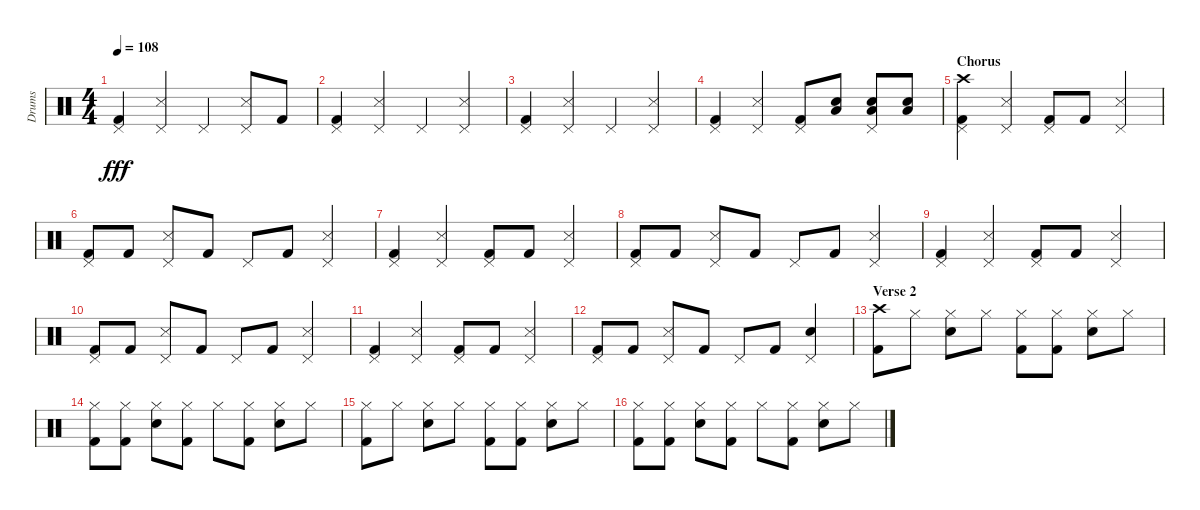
\track ("Drums" "Drums") {instrument percussion}
\staff {score}
\articulation defaults
\ts (4 4)
\tempo 108
\clef neutral
\ks c
("Pedal Hi-Hat (hit)" "Kick (hit) 2").4{dy fff} ("Pedal Hi-Hat (hit)" "Snare (side stick) 3").4 "Pedal Hi-Hat (hit)".4 ("Pedal Hi-Hat (hit)" "Snare (side stick) 3").8 "Kick (hit) 2".8 |
("Pedal Hi-Hat (hit)" "Kick (hit) 2").4 ("Pedal Hi-Hat (hit)" "Snare (side stick) 3").4 "Pedal Hi-Hat (hit)".4 ("Pedal Hi-Hat (hit)" "Snare (side stick) 3").4 |
("Pedal Hi-Hat (hit)" "Kick (hit) 2").4 ("Pedal Hi-Hat (hit)" "Snare (side stick) 3").4 "Pedal Hi-Hat (hit)".4 ("Pedal Hi-Hat (hit)" "Snare (side stick) 3").4 |
("Pedal Hi-Hat (hit)" "Kick (hit) 2").4 ("Pedal Hi-Hat (hit)" "Snare (side stick) 3").4 ("Pedal Hi-Hat (hit)" "Kick (hit) 2").8 ("Low Floor Tom (hit)" "Snare (hit) 2").8 ("Pedal Hi-Hat (hit)" "Low Floor Tom (hit)" "Snare (hit) 2").8 ("Low Floor Tom (hit)" "Snare (hit) 2").8 |
\section ("" "Chorus")
("Crash high (hit)" "Pedal Hi-Hat (hit)" "Kick (hit) 2").4 ("Pedal Hi-Hat (hit)" "Snare (side stick) 3").4 ("Pedal Hi-Hat (hit)" "Kick (hit) 2").8 "Kick (hit) 2".8 ("Pedal Hi-Hat (hit)" "Snare (side stick) 3").4 |
("Pedal Hi-Hat (hit)" "Kick (hit) 2").8 "Kick (hit) 2".8 ("Pedal Hi-Hat (hit)" "Snare (side stick) 3").8 "Kick (hit) 2".8 "Pedal Hi-Hat (hit)".8 "Kick (hit) 2".8 ("Pedal Hi-Hat (hit)" "Snare (side stick) 3").4 |
("Pedal Hi-Hat (hit)" "Kick (hit) 2").4 ("Pedal Hi-Hat (hit)" "Snare (side stick) 3").4 ("Pedal Hi-Hat (hit)" "Kick (hit) 2").8 "Kick (hit) 2".8 ("Pedal Hi-Hat (hit)" "Snare (side stick) 3").4 |
("Pedal Hi-Hat (hit)" "Kick (hit) 2").8 "Kick (hit) 2".8 ("Pedal Hi-Hat (hit)" "Snare (side stick) 3").8 "Kick (hit) 2".8 "Pedal Hi-Hat (hit)".8 "Kick (hit) 2".8 ("Pedal Hi-Hat (hit)" "Snare (side stick) 3").4 |
("Pedal Hi-Hat (hit)" "Kick (hit) 2").4 ("Pedal Hi-Hat (hit)" "Snare (side stick) 3").4 ("Pedal Hi-Hat (hit)" "Kick (hit) 2").8 "Kick (hit) 2".8 ("Pedal Hi-Hat (hit)" "Snare (side stick) 3").4 |
("Pedal Hi-Hat (hit)" "Kick (hit) 2").8 "Kick (hit) 2".8 ("Pedal Hi-Hat (hit)" "Snare (side stick) 3").8 "Kick (hit) 2".8 "Pedal Hi-Hat (hit)".8 "Kick (hit) 2".8 ("Pedal Hi-Hat (hit)" "Snare (side stick) 3").4 |
("Pedal Hi-Hat (hit)" "Kick (hit) 2").4 ("Pedal Hi-Hat (hit)" "Snare (side stick) 3").4 ("Pedal Hi-Hat (hit)" "Kick (hit) 2").8 "Kick (hit) 2".8 ("Pedal Hi-Hat (hit)" "Snare (side stick) 3").4 |
("Pedal Hi-Hat (hit)" "Kick (hit) 2").8 "Kick (hit) 2".8 ("Pedal Hi-Hat (hit)" "Snare (side stick) 3").8 "Kick (hit) 2".8 "Pedal Hi-Hat (hit)".8 "Kick (hit) 2".8 ("Pedal Hi-Hat (hit)" "Snare (hit) 2").4 |
\section ("" "Verse 2")
("Crash high (hit)" "Kick (hit) 2").8 "Hi-Hat (closed)".8 ("Hi-Hat (closed)" "Snare (hit) 2").8 "Hi-Hat (closed)".8 ("Hi-Hat (closed)" "Kick (hit) 2").8 ("Hi-Hat (closed)" "Kick (hit) 2").8 ("Hi-Hat (closed)" "Snare (hit) 2").8 "Hi-Hat (closed)".8 |
("Hi-Hat (closed)" "Kick (hit) 2").8 ("Hi-Hat (closed)" "Kick (hit) 2").8 ("Hi-Hat (closed)" "Snare (hit) 2").8 ("Hi-Hat (closed)" "Kick (hit) 2").8 "Hi-Hat (closed)".8 ("Hi-Hat (closed)" "Kick (hit) 2").8 ("Hi-Hat (closed)" "Snare (hit) 2").8 "Hi-Hat (closed)".8 |
("Hi-Hat (closed)" "Kick (hit) 2").8 "Hi-Hat (closed)".8 ("Hi-Hat (closed)" "Snare (hit) 2").8 "Hi-Hat (closed)".8 ("Hi-Hat (closed)" "Kick (hit) 2").8 ("Hi-Hat (closed)" "Kick (hit) 2").8 ("Hi-Hat (closed)" "Snare (hit) 2").8 "Hi-Hat (closed)".8 |
("Hi-Hat (closed)" "Kick (hit) 2").8 ("Hi-Hat (closed)" "Kick (hit) 2").8 ("Hi-Hat (closed)" "Snare (hit) 2").8 ("Hi-Hat (closed)" "Kick (hit) 2").8 "Hi-Hat (closed)".8 ("Hi-Hat (closed)" "Kick (hit) 2").8 ("Hi-Hat (closed)" "Snare (hit) 2").8 "Hi-Hat (closed)".8
